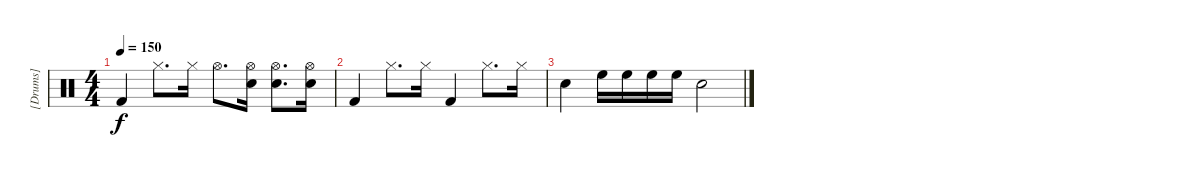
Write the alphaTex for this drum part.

\track ("[Drums]" "[Drums]") {instrument percussion}
\staff {score}
\articulation defaults
\ts (4 4)
\tempo 150
\clef neutral
\ks c "Kick (hit) 2".4{dy f} "Hi-Hat (closed)".8{d} "Hi-Hat (closed)".16 "Hi-Hat (open)".8{d}
("Hi-Hat (open)" "Electric Snare (hit)").16 ("Hi-Hat (open)" "Electric Snare (hit)").8{d} ("Hi-Hat (open)" "Electric Snare (hit)").16 |
"Kick (hit) 2".4 "Hi-Hat (closed)".8{d} "Hi-Hat (closed)".16 "Kick (hit) 2".4 "Hi-Hat (closed)".8{d} "Hi-Hat (closed)".16 |
"Electric Snare (hit)".4 "High Floor Tom (hit)".16 "High Floor Tom (hit)".16 "High Floor Tom (hit)".16 "High Floor Tom (hit)".16 "Electric Snare (hit)".2
